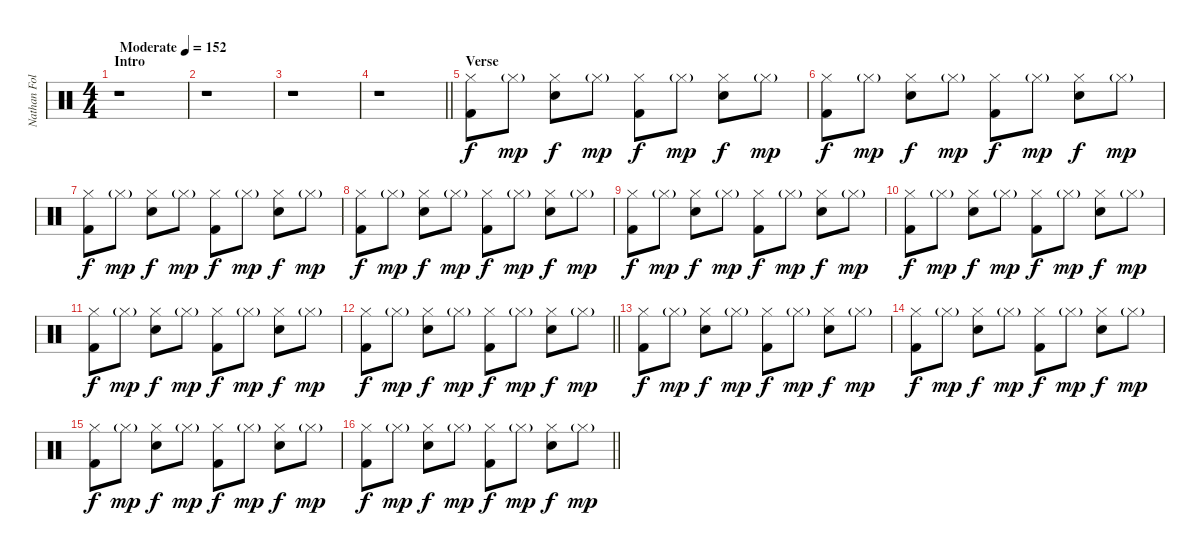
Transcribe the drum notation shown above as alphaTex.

\track ("Nathan Followill" "Nathan Fol") {instrument percussion}
\staff {score}
\articulation defaults
\ts (4 4)
\section ("" "Intro")
\tempo (152 "Moderate")
\clef neutral
\ks c
r.1{dy f} |
r.1 |
r.1 |
\barLineRight lightlight
r.1 |
\section ("" "Verse")
("Hi-Hat (closed)" "Kick (hit) 2").8 "Hi-Hat (closed)"{g}.8{dy mp} ("Hi-Hat (closed)" "Electric Snare (hit)").8{dy f} "Hi-Hat (closed)"{g}.8{dy mp} ("Hi-Hat (closed)" "Kick (hit) 2").8{dy f} "Hi-Hat (closed)"{g}.8{dy mp} ("Hi-Hat (closed)" "Electric Snare (hit)").8{dy f} "Hi-Hat (closed)"{g}.8{dy mp} |
("Hi-Hat (closed)" "Kick (hit) 2").8{dy f} "Hi-Hat (closed)"{g}.8{dy mp} ("Hi-Hat (closed)" "Electric Snare (hit)").8{dy f} "Hi-Hat (closed)"{g}.8{dy mp} ("Hi-Hat (closed)" "Kick (hit) 2").8{dy f} "Hi-Hat (closed)"{g}.8{dy mp} ("Hi-Hat (closed)" "Electric Snare (hit)").8{dy f} "Hi-Hat (closed)"{g}.8{dy mp} |
("Hi-Hat (closed)" "Kick (hit) 2").8{dy f} "Hi-Hat (closed)"{g}.8{dy mp} ("Hi-Hat (closed)" "Electric Snare (hit)").8{dy f} "Hi-Hat (closed)"{g}.8{dy mp} ("Hi-Hat (closed)" "Kick (hit) 2").8{dy f} "Hi-Hat (closed)"{g}.8{dy mp} ("Hi-Hat (closed)" "Electric Snare (hit)").8{dy f} "Hi-Hat (closed)"{g}.8{dy mp} |
("Hi-Hat (closed)" "Kick (hit) 2").8{dy f} "Hi-Hat (closed)"{g}.8{dy mp} ("Hi-Hat (closed)" "Electric Snare (hit)").8{dy f} "Hi-Hat (closed)"{g}.8{dy mp} ("Hi-Hat (closed)" "Kick (hit) 2").8{dy f} "Hi-Hat (closed)"{g}.8{dy mp} ("Hi-Hat (closed)" "Electric Snare (hit)").8{dy f} "Hi-Hat (closed)"{g}.8{dy mp} |
("Hi-Hat (closed)" "Kick (hit) 2").8{dy f} "Hi-Hat (closed)"{g}.8{dy mp} ("Hi-Hat (closed)" "Electric Snare (hit)").8{dy f} "Hi-Hat (closed)"{g}.8{dy mp} ("Hi-Hat (closed)" "Kick (hit) 2").8{dy f} "Hi-Hat (closed)"{g}.8{dy mp} ("Hi-Hat (closed)" "Electric Snare (hit)").8{dy f} "Hi-Hat (closed)"{g}.8{dy mp} |
("Hi-Hat (closed)" "Kick (hit) 2").8{dy f} "Hi-Hat (closed)"{g}.8{dy mp} ("Hi-Hat (closed)" "Electric Snare (hit)").8{dy f} "Hi-Hat (closed)"{g}.8{dy mp} ("Hi-Hat (closed)" "Kick (hit) 2").8{dy f} "Hi-Hat (closed)"{g}.8{dy mp} ("Hi-Hat (closed)" "Electric Snare (hit)").8{dy f} "Hi-Hat (closed)"{g}.8{dy mp} |
("Hi-Hat (closed)" "Kick (hit) 2").8{dy f} "Hi-Hat (closed)"{g}.8{dy mp} ("Hi-Hat (closed)" "Electric Snare (hit)").8{dy f} "Hi-Hat (closed)"{g}.8{dy mp} ("Hi-Hat (closed)" "Kick (hit) 2").8{dy f} "Hi-Hat (closed)"{g}.8{dy mp} ("Hi-Hat (closed)" "Electric Snare (hit)").8{dy f} "Hi-Hat (closed)"{g}.8{dy mp} |
\barLineRight lightlight
("Hi-Hat (closed)" "Kick (hit) 2").8{dy f} "Hi-Hat (closed)"{g}.8{dy mp} ("Hi-Hat (closed)" "Electric Snare (hit)").8{dy f} "Hi-Hat (closed)"{g}.8{dy mp} ("Hi-Hat (closed)" "Kick (hit) 2").8{dy f} "Hi-Hat (closed)"{g}.8{dy mp} ("Hi-Hat (closed)" "Electric Snare (hit)").8{dy f} "Hi-Hat (closed)"{g}.8{dy mp} |
\section ("" "")
("Hi-Hat (closed)" "Kick (hit) 2").8{dy f} "Hi-Hat (closed)"{g}.8{dy mp} ("Hi-Hat (closed)" "Electric Snare (hit)").8{dy f} "Hi-Hat (closed)"{g}.8{dy mp} ("Hi-Hat (closed)" "Kick (hit) 2").8{dy f} "Hi-Hat (closed)"{g}.8{dy mp} ("Hi-Hat (closed)" "Electric Snare (hit)").8{dy f} "Hi-Hat (closed)"{g}.8{dy mp} |
("Hi-Hat (closed)" "Kick (hit) 2").8{dy f} "Hi-Hat (closed)"{g}.8{dy mp} ("Hi-Hat (closed)" "Electric Snare (hit)").8{dy f} "Hi-Hat (closed)"{g}.8{dy mp} ("Hi-Hat (closed)" "Kick (hit) 2").8{dy f} "Hi-Hat (closed)"{g}.8{dy mp} ("Hi-Hat (closed)" "Electric Snare (hit)").8{dy f} "Hi-Hat (closed)"{g}.8{dy mp} |
("Hi-Hat (closed)" "Kick (hit) 2").8{dy f} "Hi-Hat (closed)"{g}.8{dy mp} ("Hi-Hat (closed)" "Electric Snare (hit)").8{dy f} "Hi-Hat (closed)"{g}.8{dy mp} ("Hi-Hat (closed)" "Kick (hit) 2").8{dy f} "Hi-Hat (closed)"{g}.8{dy mp} ("Hi-Hat (closed)" "Electric Snare (hit)").8{dy f} "Hi-Hat (closed)"{g}.8{dy mp} |
\barLineRight lightlight
("Hi-Hat (closed)" "Kick (hit) 2").8{dy f} "Hi-Hat (closed)"{g}.8{dy mp} ("Hi-Hat (closed)" "Electric Snare (hit)").8{dy f} "Hi-Hat (closed)"{g}.8{dy mp} ("Hi-Hat (closed)" "Kick (hit) 2").8{dy f} "Hi-Hat (closed)"{g}.8{dy mp} ("Hi-Hat (closed)" "Electric Snare (hit)").8{dy f} "Hi-Hat (closed)"{g}.8{dy mp}
